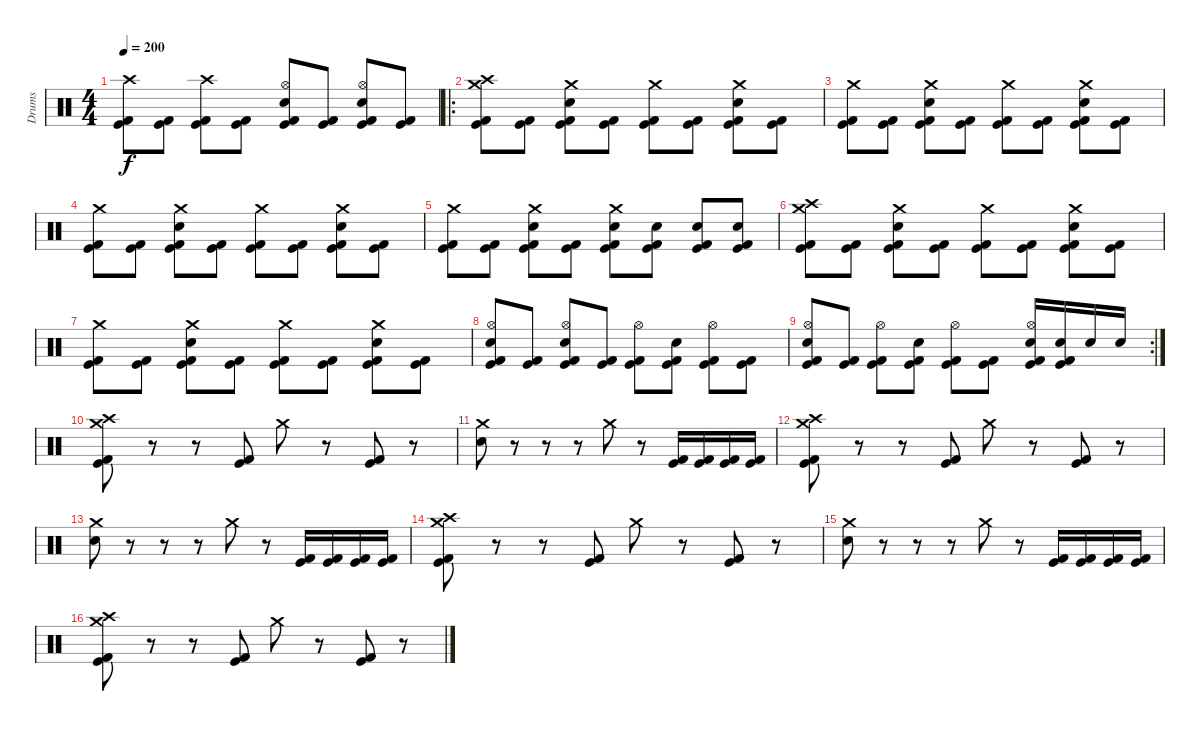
\track ("Drums" "Drums") {instrument percussion}
\staff {score}
\articulation defaults
\ts (4 4)
\tempo 200
\clef neutral
\ks c
("Crash high (hit)" "Kick (hit) 2" "Kick (hit)").8{dy f} ("Kick (hit) 2" "Kick (hit)").8 ("Crash high (hit)" "Kick (hit) 2" "Kick (hit)").8 ("Kick (hit) 2" "Kick (hit)").8 ("Hi-Hat (open)" "Electric Snare (hit)" "Kick (hit) 2" "Kick (hit)").8 ("Kick (hit) 2" "Kick (hit)").8 ("Hi-Hat (open)" "Electric Snare (hit)" "Kick (hit) 2" "Kick (hit)").8 ("Kick (hit) 2" "Kick (hit)").8 |
\ro
("Crash medium (hit)" "Crash high (hit)" "Kick (hit) 2" "Kick (hit)").8 ("Kick (hit) 2" "Kick (hit)").8 ("Crash medium (hit)" "Electric Snare (hit)" "Kick (hit) 2" "Kick (hit)").8 ("Kick (hit) 2" "Kick (hit)").8 ("Crash medium (hit)" "Kick (hit) 2" "Kick (hit)").8 ("Kick (hit) 2" "Kick (hit)").8 ("Crash medium (hit)" "Electric Snare (hit)" "Kick (hit) 2" "Kick (hit)").8 ("Kick (hit) 2" "Kick (hit)").8 |
("Crash medium (hit)" "Kick (hit) 2" "Kick (hit)").8 ("Kick (hit) 2" "Kick (hit)").8 ("Crash medium (hit)" "Electric Snare (hit)" "Kick (hit) 2" "Kick (hit)").8 ("Kick (hit) 2" "Kick (hit)").8 ("Crash medium (hit)" "Kick (hit) 2" "Kick (hit)").8 ("Kick (hit) 2" "Kick (hit)").8 ("Crash medium (hit)" "Electric Snare (hit)" "Kick (hit) 2" "Kick (hit)").8 ("Kick (hit) 2" "Kick (hit)").8 |
("Crash medium (hit)" "Kick (hit) 2" "Kick (hit)").8 ("Kick (hit) 2" "Kick (hit)").8 ("Crash medium (hit)" "Electric Snare (hit)" "Kick (hit) 2" "Kick (hit)").8 ("Kick (hit) 2" "Kick (hit)").8 ("Crash medium (hit)" "Kick (hit) 2" "Kick (hit)").8 ("Kick (hit) 2" "Kick (hit)").8 ("Crash medium (hit)" "Electric Snare (hit)" "Kick (hit) 2" "Kick (hit)").8 ("Kick (hit) 2" "Kick (hit)").8 |
("Crash medium (hit)" "Kick (hit) 2" "Kick (hit)").8 ("Kick (hit) 2" "Kick (hit)").8 ("Crash medium (hit)" "Electric Snare (hit)" "Kick (hit) 2" "Kick (hit)").8 ("Kick (hit) 2" "Kick (hit)").8 ("Crash medium (hit)" "Electric Snare (hit)" "Kick (hit) 2" "Kick (hit)").8 ("Electric Snare (hit)" "Kick (hit) 2" "Kick (hit)").8 ("Electric Snare (hit)" "Kick (hit) 2" "Kick (hit)").8 ("Electric Snare (hit)" "Kick (hit) 2" "Kick (hit)").8 |
("Crash medium (hit)" "Crash high (hit)" "Kick (hit) 2" "Kick (hit)").8 ("Kick (hit) 2" "Kick (hit)").8 ("Crash medium (hit)" "Electric Snare (hit)" "Kick (hit) 2" "Kick (hit)").8 ("Kick (hit) 2" "Kick (hit)").8 ("Crash medium (hit)" "Kick (hit) 2" "Kick (hit)").8 ("Kick (hit) 2" "Kick (hit)").8 ("Crash medium (hit)" "Electric Snare (hit)" "Kick (hit) 2" "Kick (hit)").8 ("Kick (hit) 2" "Kick (hit)").8 |
("Crash medium (hit)" "Kick (hit) 2" "Kick (hit)").8 ("Kick (hit) 2" "Kick (hit)").8 ("Crash medium (hit)" "Electric Snare (hit)" "Kick (hit) 2" "Kick (hit)").8 ("Kick (hit) 2" "Kick (hit)").8 ("Crash medium (hit)" "Kick (hit) 2" "Kick (hit)").8 ("Kick (hit) 2" "Kick (hit)").8 ("Crash medium (hit)" "Electric Snare (hit)" "Kick (hit) 2" "Kick (hit)").8 ("Kick (hit) 2" "Kick (hit)").8 |
("Hi-Hat (open)" "Electric Snare (hit)" "Kick (hit) 2" "Kick (hit)").8 ("Kick (hit) 2" "Kick (hit)").8 ("Hi-Hat (open)" "Electric Snare (hit)" "Kick (hit) 2" "Kick (hit)").8 ("Kick (hit) 2" "Kick (hit)").8 ("Hi-Hat (open)" "Kick (hit) 2" "Kick (hit)").8 ("Electric Snare (hit)" "Kick (hit) 2" "Kick (hit)").8 ("Hi-Hat (open)" "Kick (hit) 2" "Kick (hit)").8 ("Kick (hit) 2" "Kick (hit)").8 |
\rc 2
("Hi-Hat (open)" "Electric Snare (hit)" "Kick (hit) 2" "Kick (hit)").8 ("Kick (hit) 2" "Kick (hit)").8 ("Hi-Hat (open)" "Kick (hit) 2" "Kick (hit)").8 ("Electric Snare (hit)" "Kick (hit) 2" "Kick (hit)").8 ("Hi-Hat (open)" "Kick (hit) 2" "Kick (hit)").8 ("Kick (hit) 2" "Kick (hit)").8 ("Hi-Hat (open)" "Electric Snare (hit)" "Kick (hit) 2" "Kick (hit)").16 ("Electric Snare (hit)" "Kick (hit) 2" "Kick (hit)").16 "Electric Snare (hit)".16 "Electric Snare (hit)".16 |
("Crash medium (hit)" "Crash high (hit)" "Kick (hit) 2" "Kick (hit)").8 r.8 r.8 ("Kick (hit) 2" "Kick (hit)").8 "Crash medium (hit)".8 r.8 ("Kick (hit) 2" "Kick (hit)").8 r.8 |
("Crash medium (hit)" "Electric Snare (hit)").8 r.8 r.8 r.8 "Crash medium (hit)".8 r.8 ("Kick (hit) 2" "Kick (hit)").16 ("Kick (hit) 2" "Kick (hit)").16 ("Kick (hit) 2" "Kick (hit)").16 ("Kick (hit) 2" "Kick (hit)").16 |
("Crash medium (hit)" "Crash high (hit)" "Kick (hit) 2" "Kick (hit)").8 r.8 r.8 ("Kick (hit) 2" "Kick (hit)").8 "Crash medium (hit)".8 r.8 ("Kick (hit) 2" "Kick (hit)").8 r.8 |
("Crash medium (hit)" "Electric Snare (hit)").8 r.8 r.8 r.8 "Crash medium (hit)".8 r.8 ("Kick (hit) 2" "Kick (hit)").16 ("Kick (hit) 2" "Kick (hit)").16 ("Kick (hit) 2" "Kick (hit)").16 ("Kick (hit) 2" "Kick (hit)").16 |
("Crash medium (hit)" "Crash high (hit)" "Kick (hit) 2" "Kick (hit)").8 r.8 r.8 ("Kick (hit) 2" "Kick (hit)").8 "Crash medium (hit)".8 r.8 ("Kick (hit) 2" "Kick (hit)").8 r.8 |
("Crash medium (hit)" "Electric Snare (hit)").8 r.8 r.8 r.8 "Crash medium (hit)".8 r.8 ("Kick (hit) 2" "Kick (hit)").16 ("Kick (hit) 2" "Kick (hit)").16 ("Kick (hit) 2" "Kick (hit)").16 ("Kick (hit) 2" "Kick (hit)").16 |
("Crash medium (hit)" "Crash high (hit)" "Kick (hit) 2" "Kick (hit)").8 r.8 r.8 ("Kick (hit) 2" "Kick (hit)").8 "Crash medium (hit)".8 r.8 ("Kick (hit) 2" "Kick (hit)").8 r.8
